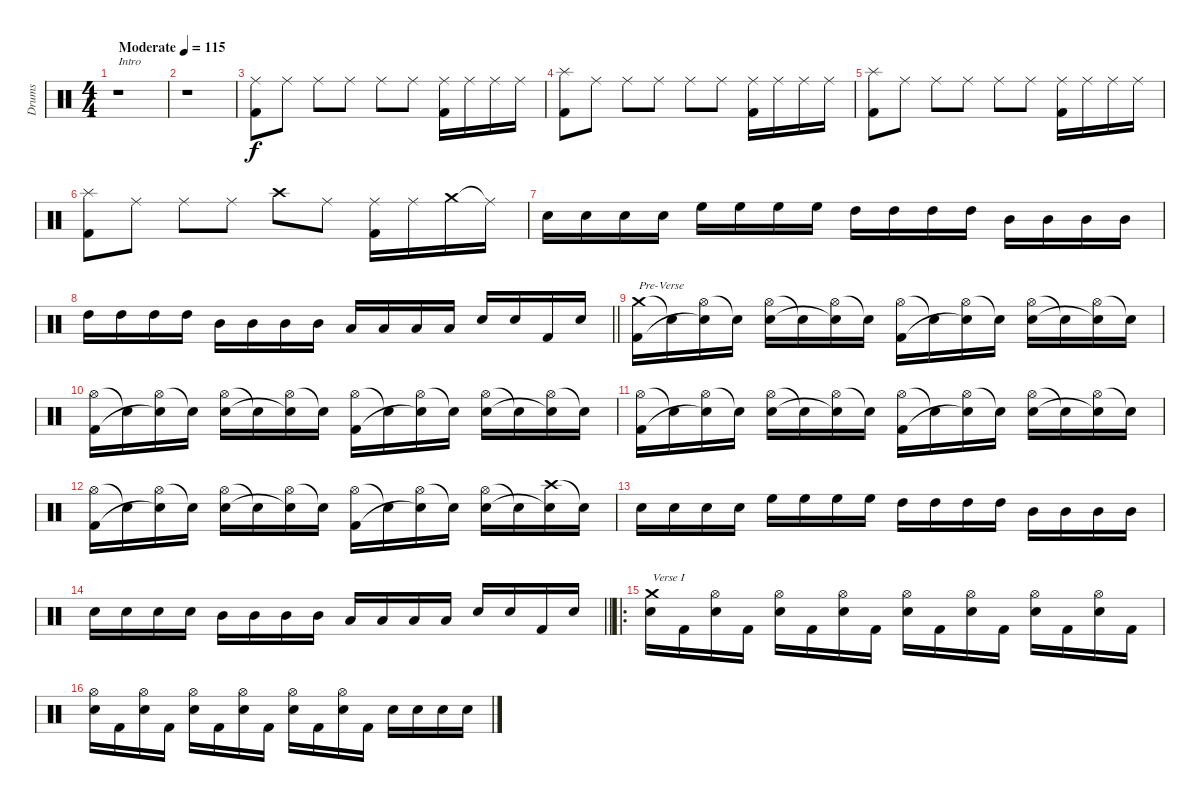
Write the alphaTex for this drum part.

\track ("Drums" "Drums") {instrument percussion}
\staff {score}
\articulation defaults
\ts (4 4)
\tempo (115 "Moderate")
\clef neutral
\ks c
r.1{txt "Intro" dy f} |
r.1 |
("Ride (middle)" "Kick (hit) 2").8 "Ride (middle)".8 "Ride (middle)".8 "Ride (middle)".8 "Ride (middle)".8 "Ride (middle)".8 ("Ride (middle)" "Kick (hit) 2").16 "Ride (middle)".16 "Ride (middle)".16 "Ride (middle)".16 |
("Splash (hit)" "Kick (hit) 2").8 "Ride (middle)".8 "Ride (middle)".8 "Ride (middle)".8 "Ride (middle)".8 "Ride (middle)".8 ("Ride (middle)" "Kick (hit) 2").16 "Ride (middle)".16 "Ride (middle)".16 "Ride (middle)".16 |
("Splash (hit)" "Kick (hit) 2").8 "Ride (middle)".8 "Ride (middle)".8 "Ride (middle)".8 "Ride (middle)".8 "Ride (middle)".8 ("Ride (middle)" "Kick (hit) 2").16 "Ride (middle)".16 "Ride (middle)".16 "Ride (middle)".16 |
("Splash (hit)" "Kick (hit) 2").8 "Ride (middle)".8 "Ride (middle)".8 "Ride (middle)".8 "Crash high (hit)".8 "Ride (middle)".8 ("Ride (middle)" "Kick (hit) 2").16 "Ride (middle)".16 "Crash medium (hit)".16 "Ride (middle)"{t}.16 |
"Electric Snare (hit)".16 "Electric Snare (hit)".16 "Electric Snare (hit)".16 "Electric Snare (hit)".16 "High Floor Tom (hit)".16 "High Floor Tom (hit)".16 "High Floor Tom (hit)".16 "High Floor Tom (hit)".16 "High Tom (hit)".16 "High Tom (hit)".16 "High Tom (hit)".16 "High Tom (hit)".16 "Mid Tom (hit)".16 "Mid Tom (hit)".16 "Mid Tom (hit)".16 "Mid Tom (hit)".16 |
\barLineRight lightlight "High Tom (hit)".16 "High Tom (hit)".16 "High Tom (hit)".16 "High Tom (hit)".16 "Mid Tom (hit)".16 "Mid Tom (hit)".16 "Mid Tom (hit)".16 "Mid Tom (hit)".16 "Low Tom (hit)".16 "Low Tom (hit)".16 "Low Tom (hit)".16 "Low Tom (hit)".16 "Electric Snare (hit)".16 "Electric Snare (hit)".16 "Kick (hit) 2".16 "Electric Snare (hit)".16
|
("Crash medium (hit)" "Kick (hit) 2").16{txt "Pre-Verse"} "Snare (hit)"{t}.16 ("Hi-Hat (open)" "Snare (hit)"{t}).16 "Snare (hit)"{t}.16 ("Hi-Hat (open)" "Electric Snare (hit)").16 "Snare (hit)"{t}.16 ("Hi-Hat (open)" "Snare (hit)"{t}).16 "Snare (hit)"{t}.16 ("Hi-Hat (open)" "Kick (hit) 2").16 "Snare (hit)"{t}.16 ("Hi-Hat (open)" "Snare (hit)"{t}).16 "Snare (hit)"{t}.16 ("Hi-Hat (open)" "Electric Snare (hit)").16 "Snare (hit)"{t}.16 ("Hi-Hat (open)" "Snare (hit)"{t}).16 "Snare (hit)"{t}.16 |
("Hi-Hat (open)" "Kick (hit) 2").16 "Snare (hit)"{t}.16 ("Hi-Hat (open)" "Snare (hit)"{t}).16 "Snare (hit)"{t}.16 ("Hi-Hat (open)" "Electric Snare (hit)").16 "Snare (hit)"{t}.16 ("Hi-Hat (open)" "Snare (hit)"{t}).16 "Snare (hit)"{t}.16 ("Hi-Hat (open)" "Kick (hit) 2").16 "Snare (hit)"{t}.16 ("Hi-Hat (open)" "Snare (hit)"{t}).16 "Snare (hit)"{t}.16 ("Hi-Hat (open)" "Electric Snare (hit)").16 "Snare (hit)"{t}.16 ("Hi-Hat (open)" "Snare (hit)"{t}).16 "Snare (hit)"{t}.16 |
("Hi-Hat (open)" "Kick (hit) 2").16 "Snare (hit)"{t}.16 ("Hi-Hat (open)" "Snare (hit)"{t}).16 "Snare (hit)"{t}.16 ("Hi-Hat (open)" "Electric Snare (hit)").16 "Snare (hit)"{t}.16 ("Hi-Hat (open)" "Snare (hit)"{t}).16 "Snare (hit)"{t}.16 ("Hi-Hat (open)" "Kick (hit) 2").16 "Snare (hit)"{t}.16 ("Hi-Hat (open)" "Snare (hit)"{t}).16 "Snare (hit)"{t}.16 ("Hi-Hat (open)" "Electric Snare (hit)").16 "Snare (hit)"{t}.16 ("Hi-Hat (open)" "Snare (hit)"{t}).16 "Snare (hit)"{t}.16 |
("Hi-Hat (open)" "Kick (hit) 2").16 "Snare (hit)"{t}.16 ("Hi-Hat (open)" "Snare (hit)"{t}).16 "Snare (hit)"{t}.16 ("Hi-Hat (open)" "Electric Snare (hit)").16 "Snare (hit)"{t}.16 ("Hi-Hat (open)" "Snare (hit)"{t}).16 "Snare (hit)"{t}.16 ("Hi-Hat (open)" "Kick (hit) 2").16 "Snare (hit)"{t}.16 ("Hi-Hat (open)" "Snare (hit)"{t}).16 "Snare (hit)"{t}.16 ("Hi-Hat (open)" "Electric Snare (hit)").16 "Snare (hit)"{t}.16 ("Crash high (hit)" "Snare (hit)"{t}).16 "Snare (hit)"{t}.16 |
"Electric Snare (hit)".16 "Electric Snare (hit)".16 "Electric Snare (hit)".16 "Electric Snare (hit)".16 "High Floor Tom (hit)".16 "High Floor Tom (hit)".16 "High Floor Tom (hit)".16 "High Floor Tom (hit)".16 "High Tom (hit)".16 "High Tom (hit)".16 "High Tom (hit)".16 "High Tom (hit)".16 "Mid Tom (hit)".16 "Mid Tom (hit)".16 "Mid Tom (hit)".16 "Mid Tom (hit)".16 |
\barLineRight lightlight "Electric Snare (hit)".16 "Electric Snare (hit)".16 "Electric Snare (hit)".16 "Electric Snare (hit)".16 "Mid Tom (hit)".16 "Mid Tom (hit)".16 "Mid Tom (hit)".16 "Mid Tom (hit)".16 "Low Tom (hit)".16 "Low Tom (hit)".16 "Low Tom (hit)".16 "Low Tom (hit)".16 "Electric Snare (hit)".16 "Electric Snare (hit)".16 "Kick (hit) 2".16 "Electric Snare (hit)".16
|
\ro
("Crash medium (hit)" "Electric Snare (hit)").16{txt "Verse I"} "Kick (hit) 2".16 ("Hi-Hat (open)" "Electric Snare (hit)").16 "Kick (hit) 2".16 ("Hi-Hat (open)" "Electric Snare (hit)").16 "Kick (hit) 2".16 ("Hi-Hat (open)" "Electric Snare (hit)").16 "Kick (hit) 2".16 ("Hi-Hat (open)" "Electric Snare (hit)").16 "Kick (hit) 2".16 ("Hi-Hat (open)" "Electric Snare (hit)").16 "Kick (hit) 2".16 ("Hi-Hat (open)" "Electric Snare (hit)").16 "Kick (hit) 2".16 ("Hi-Hat (open)" "Electric Snare (hit)").16 "Kick (hit) 2".16 |
("Hi-Hat (open)" "Electric Snare (hit)").16 "Kick (hit) 2".16 ("Hi-Hat (open)" "Electric Snare (hit)").16 "Kick (hit) 2".16 ("Hi-Hat (open)" "Electric Snare (hit)").16 "Kick (hit) 2".16 ("Hi-Hat (open)" "Electric Snare (hit)").16 "Kick (hit) 2".16 ("Hi-Hat (open)" "Electric Snare (hit)").16 "Kick (hit) 2".16 ("Hi-Hat (open)" "Electric Snare (hit)").16 "Kick (hit) 2".16 "Electric Snare (hit)".16 "Electric Snare (hit)".16 "Electric Snare (hit)".16 "Electric Snare (hit)".16
